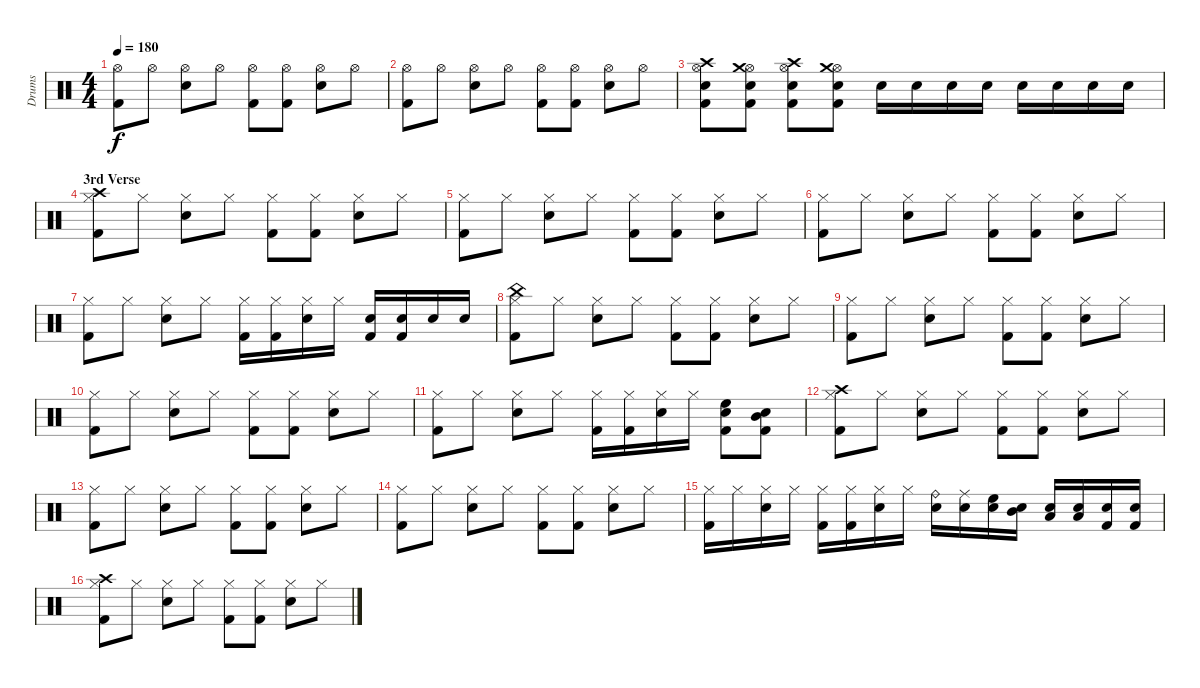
\track ("Drums" "Drums") {instrument percussion}
\staff {score}
\articulation defaults
\ts (4 4)
\tempo 180
\clef neutral
\ks c
("Hi-Hat (open)" "Kick (hit) 2").8{dy f} "Hi-Hat (open)".8 ("Hi-Hat (open)" "Snare (hit) 2").8 "Hi-Hat (open)".8 ("Hi-Hat (open)" "Kick (hit) 2").8 ("Hi-Hat (open)" "Kick (hit) 2").8 ("Hi-Hat (open)" "Snare (hit) 2").8 "Hi-Hat (open)".8 |
("Hi-Hat (open)" "Kick (hit) 2").8 "Hi-Hat (open)".8 ("Hi-Hat (open)" "Snare (hit) 2").8 "Hi-Hat (open)".8 ("Hi-Hat (open)" "Kick (hit) 2").8 ("Hi-Hat (open)" "Kick (hit) 2").8 ("Hi-Hat (open)" "Snare (hit) 2").8 "Hi-Hat (open)".8 |
("Hi-Hat (open)" "Crash high (hit)" "Snare (hit) 2" "Kick (hit) 2").8 ("Hi-Hat (open)" "Crash medium (hit)" "Snare (hit) 2" "Kick (hit) 2").8 ("Hi-Hat (open)" "Crash high (hit)" "Snare (hit) 2" "Kick (hit) 2").8 ("Hi-Hat (open)" "Crash medium (hit)" "Snare (hit) 2" "Kick (hit) 2").8 "Snare (hit) 2".16 "Snare (hit) 2".16 "Snare (hit) 2".16 "Snare (hit) 2".16 "Snare (hit) 2".16 "Snare (hit) 2".16 "Snare (hit) 2".16 "Snare (hit) 2".16 |
\section ("" "3rd Verse")
("Hi-Hat (closed)" "Crash high (hit)" "Kick (hit) 2").8 "Hi-Hat (closed)".8 ("Hi-Hat (closed)" "Snare (hit) 2").8 "Hi-Hat (closed)".8 ("Hi-Hat (closed)" "Kick (hit) 2").8 ("Hi-Hat (closed)" "Kick (hit) 2").8 ("Hi-Hat (closed)" "Snare (hit) 2").8 "Hi-Hat (closed)".8 |
("Hi-Hat (closed)" "Kick (hit) 2").8 "Hi-Hat (closed)".8 ("Hi-Hat (closed)" "Snare (hit) 2").8 "Hi-Hat (closed)".8 ("Hi-Hat (closed)" "Kick (hit) 2").8 ("Hi-Hat (closed)" "Kick (hit) 2").8 ("Hi-Hat (closed)" "Snare (hit) 2").8 "Hi-Hat (closed)".8 |
("Hi-Hat (closed)" "Kick (hit) 2").8 "Hi-Hat (closed)".8 ("Hi-Hat (closed)" "Snare (hit) 2").8 "Hi-Hat (closed)".8 ("Hi-Hat (closed)" "Kick (hit) 2").8 ("Hi-Hat (closed)" "Kick (hit) 2").8 ("Hi-Hat (closed)" "Snare (hit) 2").8 "Hi-Hat (closed)".8 |
("Hi-Hat (closed)" "Kick (hit) 2").8 "Hi-Hat (closed)".8 ("Hi-Hat (closed)" "Snare (hit) 2").8 "Hi-Hat (closed)".8 ("Hi-Hat (closed)" "Kick (hit) 2").16 ("Hi-Hat (closed)" "Kick (hit) 2").16 ("Hi-Hat (closed)" "Snare (hit) 2").16 "Hi-Hat (closed)".16 ("Snare (hit) 2" "Kick (hit) 2").16 ("Snare (hit) 2" "Kick (hit) 2").16 "Snare (hit) 2".16 "Snare (hit) 2".16 |
("Hi-Hat (closed)" "China (hit)" "Kick (hit) 2").8 "Hi-Hat (closed)".8 ("Hi-Hat (closed)" "Snare (hit) 2").8 "Hi-Hat (closed)".8 ("Hi-Hat (closed)" "Kick (hit) 2").8 ("Hi-Hat (closed)" "Kick (hit) 2").8 ("Hi-Hat (closed)" "Snare (hit) 2").8 "Hi-Hat (closed)".8 |
("Hi-Hat (closed)" "Kick (hit) 2").8 "Hi-Hat (closed)".8 ("Hi-Hat (closed)" "Snare (hit) 2").8 "Hi-Hat (closed)".8 ("Hi-Hat (closed)" "Kick (hit) 2").8 ("Hi-Hat (closed)" "Kick (hit) 2").8 ("Hi-Hat (closed)" "Snare (hit) 2").8 "Hi-Hat (closed)".8 |
("Hi-Hat (closed)" "Kick (hit) 2").8 "Hi-Hat (closed)".8 ("Hi-Hat (closed)" "Snare (hit) 2").8 "Hi-Hat (closed)".8 ("Hi-Hat (closed)" "Kick (hit) 2").8 ("Hi-Hat (closed)" "Kick (hit) 2").8 ("Hi-Hat (closed)" "Snare (hit) 2").8 "Hi-Hat (closed)".8 |
("Hi-Hat (closed)" "Kick (hit) 2").8 "Hi-Hat (closed)".8 ("Hi-Hat (closed)" "Snare (hit) 2").8 "Hi-Hat (closed)".8 ("Hi-Hat (closed)" "Kick (hit) 2").16 ("Hi-Hat (closed)" "Kick (hit) 2").16 ("Hi-Hat (closed)" "Snare (hit) 2").16 "Hi-Hat (closed)".16 ("High Floor Tom (hit)" "Snare (hit) 2" "Kick (hit) 2").8 ("Mid Tom (hit)" "Snare (hit) 2" "Kick (hit) 2").8 |
("Hi-Hat (closed)" "Crash high (hit)" "Kick (hit) 2").8 "Hi-Hat (closed)".8 ("Hi-Hat (closed)" "Snare (hit) 2").8 "Hi-Hat (closed)".8 ("Hi-Hat (closed)" "Kick (hit) 2").8 ("Hi-Hat (closed)" "Kick (hit) 2").8 ("Hi-Hat (closed)" "Snare (hit) 2").8 "Hi-Hat (closed)".8 |
("Hi-Hat (closed)" "Kick (hit) 2").8 "Hi-Hat (closed)".8 ("Hi-Hat (closed)" "Snare (hit) 2").8 "Hi-Hat (closed)".8 ("Hi-Hat (closed)" "Kick (hit) 2").8 ("Hi-Hat (closed)" "Kick (hit) 2").8 ("Hi-Hat (closed)" "Snare (hit) 2").8 "Hi-Hat (closed)".8 |
("Hi-Hat (closed)" "Kick (hit) 2").8 "Hi-Hat (closed)".8 ("Hi-Hat (closed)" "Snare (hit) 2").8 "Hi-Hat (closed)".8 ("Hi-Hat (closed)" "Kick (hit) 2").8 ("Hi-Hat (closed)" "Kick (hit) 2").8 ("Hi-Hat (closed)" "Snare (hit) 2").8 "Hi-Hat (closed)".8 |
("Hi-Hat (closed)" "Kick (hit) 2").16 "Hi-Hat (closed)".16 ("Hi-Hat (closed)" "Snare (hit) 2").16 "Hi-Hat (closed)".16 ("Hi-Hat (closed)" "Kick (hit) 2").16 ("Hi-Hat (closed)" "Kick (hit) 2").16 ("Hi-Hat (closed)" "Snare (hit) 2").16 "Hi-Hat (closed)".16 ("Ride (bell)" "Snare (hit) 2").16 ("Ride (middle)" "Snare (hit) 2").16 ("High Floor Tom (hit)" "Snare (hit) 2").16 ("Mid Tom (hit)" "Snare (hit) 2").16 ("Low Tom (hit)" "Snare (hit) 2").16 ("Low Floor Tom (hit)" "Snare (hit) 2").16 ("Kick (hit) 2" "Snare (hit) 2").16 ("Kick (hit) 2" "Snare (hit) 2").16 |
("Hi-Hat (closed)" "Crash high (hit)" "Kick (hit) 2").8 "Hi-Hat (closed)".8 ("Hi-Hat (closed)" "Snare (hit) 2").8 "Hi-Hat (closed)".8 ("Hi-Hat (closed)" "Kick (hit) 2").8 ("Hi-Hat (closed)" "Kick (hit) 2").8 ("Hi-Hat (closed)" "Snare (hit) 2").8 "Hi-Hat (closed)".8
